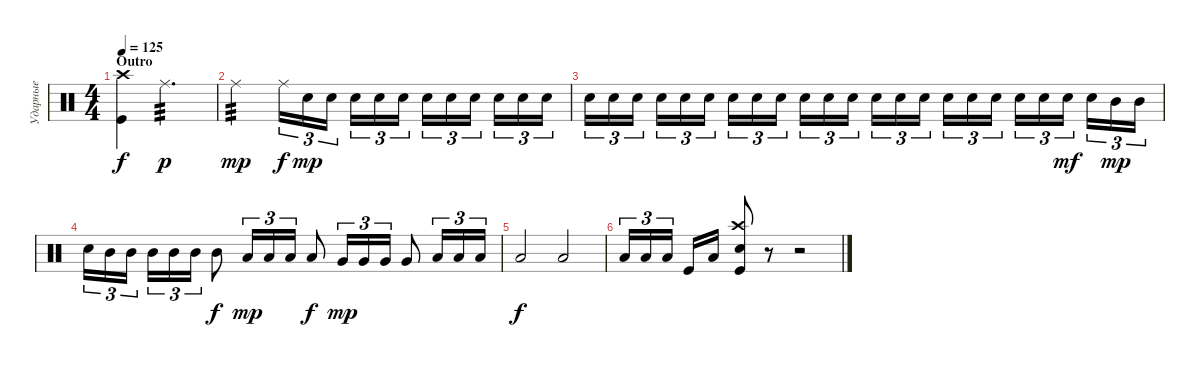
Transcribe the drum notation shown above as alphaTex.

\track ("Ударные" "Ударные") {instrument percussion}
\staff {score}
\articulation defaults
\ts (4 4)
\section ("" "Outro")
\tempo 125
\clef neutral
\ks aminor
("Kick (hit)" "Crash high (hit)").4{dy f} "Ride (middle)".2{d tp 3 dy p} |
"Ride (middle)".2{tp 3 dy mp} "Ride (middle)".16{tu (3 2) dy f} "Snare (hit) 2".16{tu (3 2) dy mp} "Snare (hit) 2".16{tu (3 2) beam splitsecondary} "Snare (hit) 2".16{tu (3 2)} "Snare (hit) 2".16{tu (3 2)} "Snare (hit) 2".16{tu (3 2)} "Snare (hit) 2".16{tu (3 2)} "Snare (hit) 2".16{tu (3 2)} "Snare (hit) 2".16{tu (3 2) beam splitsecondary} "Snare (hit) 2".16{tu (3 2)} "Snare (hit) 2".16{tu (3 2)} "Snare (hit) 2".16{tu (3 2)} |
"Snare (hit) 2".16{tu (3 2)} "Snare (hit) 2".16{tu (3 2)} "Snare (hit) 2".16{tu (3 2) beam splitsecondary} "Snare (hit) 2".16{tu (3 2)} "Snare (hit) 2".16{tu (3 2)} "Snare (hit) 2".16{tu (3 2)} "Snare (hit) 2".16{tu (3 2)} "Snare (hit) 2".16{tu (3 2)} "Snare (hit) 2".16{tu (3 2) beam splitsecondary} "Snare (hit) 2".16{tu (3 2)} "Snare (hit) 2".16{tu (3 2)} "Snare (hit) 2".16{tu (3 2)} "Snare (hit) 2".16{tu (3 2)} "Snare (hit) 2".16{tu (3 2)} "Snare (hit) 2".16{tu (3 2) beam splitsecondary} "Snare (hit) 2".16{tu (3 2)} "Snare (hit) 2".16{tu (3 2)} "Snare (hit) 2".16{tu (3 2)} "Snare (hit) 2".16{tu (3 2)} "Snare (hit) 2".16{tu (3 2)} "Snare (hit) 2".16{tu (3 2) dy mf beam splitsecondary} "Snare (hit) 2".16{tu (3 2)} "Mid Tom (hit)".16{tu (3 2) dy mp} "Mid Tom (hit)".16{tu (3 2)} |
"Snare (hit) 2".16{tu (3 2)} "Mid Tom (hit)".16{tu (3 2)} "Mid Tom (hit)".16{tu (3 2) beam splitsecondary} "Mid Tom (hit)".16{tu (3 2)} "Mid Tom (hit)".16{tu (3 2)} "Mid Tom (hit)".16{tu (3 2)} "Mid Tom (hit)".8{dy f} "Low Tom (hit)".16{tu (3 2) dy mp} "Low Tom (hit)".16{tu (3 2)} "Low Tom (hit)".16{tu (3 2)} "Low Tom (hit)".8{dy f} "Very Low Tom (hit)".16{tu (3 2) dy mp} "Very Low Tom (hit)".16{tu (3 2)} "Very Low Tom (hit)".16{tu (3 2)} "Very Low Tom (hit)".8 "Low Floor Tom (hit)".16{tu (3 2)} "Low Floor Tom (hit)".16{tu (3 2)} "Low Floor Tom (hit)".16{tu (3 2)} |
"Low Floor Tom (hit)".2{dy f} "Low Floor Tom (hit)".2 |
"Low Floor Tom (hit)".16{tu (3 2)} "Low Floor Tom (hit)".16{tu (3 2)} "Low Floor Tom (hit)".16{tu (3 2) beam splitsecondary} "Kick (hit)".16 "Low Floor Tom (hit)".16 ("Kick (hit)" "Snare (hit) 2" "Crash high (hit)").8 r.8 r.2
